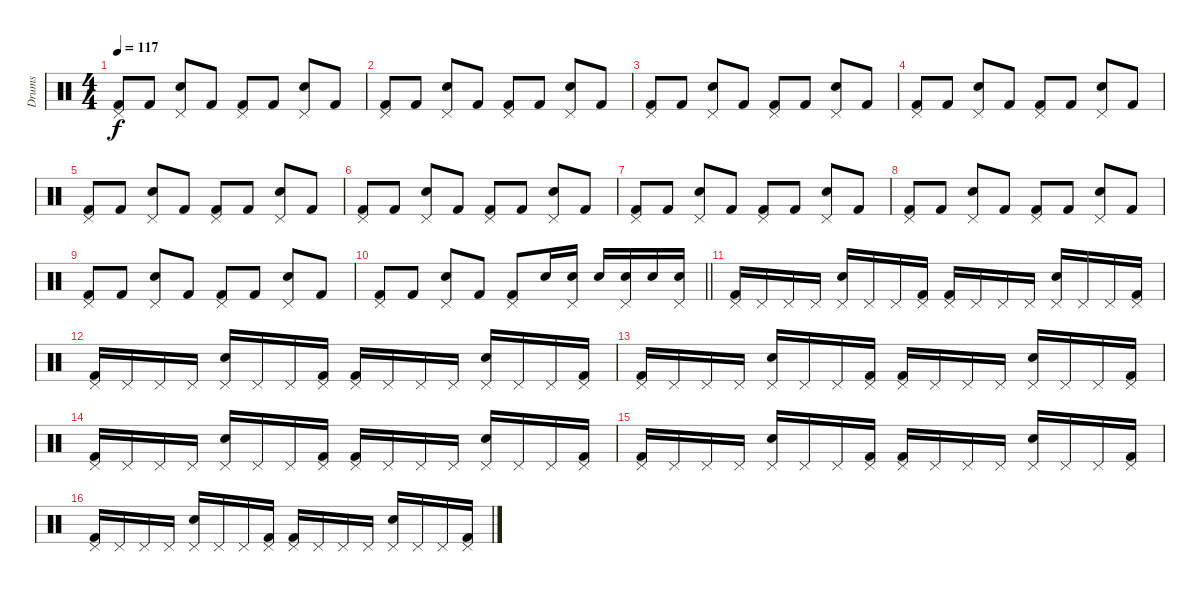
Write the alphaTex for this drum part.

\track ("Drums" "Drums") {instrument percussion}
\staff {score}
\articulation defaults
\ts (4 4)
\tempo 117
\clef neutral
\ks c
("Kick (hit) 2" "Pedal Hi-Hat (hit)").8{dy f} "Kick (hit) 2".8 ("Snare (hit) 2" "Pedal Hi-Hat (hit)").8 "Kick (hit) 2".8 ("Kick (hit) 2" "Pedal Hi-Hat (hit)").8 "Kick (hit) 2".8 ("Snare (hit) 2" "Pedal Hi-Hat (hit)").8 "Kick (hit) 2".8 |
("Kick (hit) 2" "Pedal Hi-Hat (hit)").8 "Kick (hit) 2".8 ("Snare (hit) 2" "Pedal Hi-Hat (hit)").8 "Kick (hit) 2".8 ("Kick (hit) 2" "Pedal Hi-Hat (hit)").8 "Kick (hit) 2".8 ("Snare (hit) 2" "Pedal Hi-Hat (hit)").8 "Kick (hit) 2".8 |
("Kick (hit) 2" "Pedal Hi-Hat (hit)").8 "Kick (hit) 2".8 ("Snare (hit) 2" "Pedal Hi-Hat (hit)").8 "Kick (hit) 2".8 ("Kick (hit) 2" "Pedal Hi-Hat (hit)").8 "Kick (hit) 2".8 ("Snare (hit) 2" "Pedal Hi-Hat (hit)").8 "Kick (hit) 2".8 |
("Kick (hit) 2" "Pedal Hi-Hat (hit)").8 "Kick (hit) 2".8 ("Snare (hit) 2" "Pedal Hi-Hat (hit)").8 "Kick (hit) 2".8 ("Kick (hit) 2" "Pedal Hi-Hat (hit)").8 "Kick (hit) 2".8 ("Snare (hit) 2" "Pedal Hi-Hat (hit)").8 "Kick (hit) 2".8 |
("Kick (hit) 2" "Pedal Hi-Hat (hit)").8 "Kick (hit) 2".8 ("Snare (hit) 2" "Pedal Hi-Hat (hit)").8 "Kick (hit) 2".8 ("Kick (hit) 2" "Pedal Hi-Hat (hit)").8 "Kick (hit) 2".8 ("Snare (hit) 2" "Pedal Hi-Hat (hit)").8 "Kick (hit) 2".8 |
("Kick (hit) 2" "Pedal Hi-Hat (hit)").8 "Kick (hit) 2".8 ("Snare (hit) 2" "Pedal Hi-Hat (hit)").8 "Kick (hit) 2".8 ("Kick (hit) 2" "Pedal Hi-Hat (hit)").8 "Kick (hit) 2".8 ("Snare (hit) 2" "Pedal Hi-Hat (hit)").8 "Kick (hit) 2".8 |
("Kick (hit) 2" "Pedal Hi-Hat (hit)").8 "Kick (hit) 2".8 ("Snare (hit) 2" "Pedal Hi-Hat (hit)").8 "Kick (hit) 2".8 ("Kick (hit) 2" "Pedal Hi-Hat (hit)").8 "Kick (hit) 2".8 ("Snare (hit) 2" "Pedal Hi-Hat (hit)").8 "Kick (hit) 2".8 |
("Kick (hit) 2" "Pedal Hi-Hat (hit)").8 "Kick (hit) 2".8 ("Snare (hit) 2" "Pedal Hi-Hat (hit)").8 "Kick (hit) 2".8 ("Kick (hit) 2" "Pedal Hi-Hat (hit)").8 "Kick (hit) 2".8 ("Snare (hit) 2" "Pedal Hi-Hat (hit)").8 "Kick (hit) 2".8 |
("Kick (hit) 2" "Pedal Hi-Hat (hit)").8 "Kick (hit) 2".8 ("Snare (hit) 2" "Pedal Hi-Hat (hit)").8 "Kick (hit) 2".8 ("Kick (hit) 2" "Pedal Hi-Hat (hit)").8 "Kick (hit) 2".8 ("Snare (hit) 2" "Pedal Hi-Hat (hit)").8 "Kick (hit) 2".8 |
\barLineRight lightlight
("Kick (hit) 2" "Pedal Hi-Hat (hit)").8 "Kick (hit) 2".8 ("Snare (hit) 2" "Pedal Hi-Hat (hit)").8 "Kick (hit) 2".8 ("Kick (hit) 2" "Pedal Hi-Hat (hit)").8 "Snare (hit) 2".16 ("Snare (hit) 2" "Pedal Hi-Hat (hit)").16 "Snare (hit) 2".16 ("Snare (hit) 2" "Pedal Hi-Hat (hit)").16 "Snare (hit) 2".16 ("Snare (hit) 2" "Pedal Hi-Hat (hit)").16 |
("Kick (hit) 2" "Pedal Hi-Hat (hit)").16 "Pedal Hi-Hat (hit)".16 "Pedal Hi-Hat (hit)".16 "Pedal Hi-Hat (hit)".16 ("Snare (hit) 2" "Pedal Hi-Hat (hit)").16 "Pedal Hi-Hat (hit)".16 "Pedal Hi-Hat (hit)".16 ("Kick (hit) 2" "Pedal Hi-Hat (hit)").16 ("Kick (hit) 2" "Pedal Hi-Hat (hit)").16 "Pedal Hi-Hat (hit)".16 "Pedal Hi-Hat (hit)".16 "Pedal Hi-Hat (hit)".16 ("Snare (hit) 2" "Pedal Hi-Hat (hit)").16 "Pedal Hi-Hat (hit)".16 "Pedal Hi-Hat (hit)".16 ("Kick (hit) 2" "Pedal Hi-Hat (hit)").16 |
("Kick (hit) 2" "Pedal Hi-Hat (hit)").16 "Pedal Hi-Hat (hit)".16 "Pedal Hi-Hat (hit)".16 "Pedal Hi-Hat (hit)".16 ("Snare (hit) 2" "Pedal Hi-Hat (hit)").16 "Pedal Hi-Hat (hit)".16 "Pedal Hi-Hat (hit)".16 ("Kick (hit) 2" "Pedal Hi-Hat (hit)").16 ("Kick (hit) 2" "Pedal Hi-Hat (hit)").16 "Pedal Hi-Hat (hit)".16 "Pedal Hi-Hat (hit)".16 "Pedal Hi-Hat (hit)".16 ("Snare (hit) 2" "Pedal Hi-Hat (hit)").16 "Pedal Hi-Hat (hit)".16 "Pedal Hi-Hat (hit)".16 ("Kick (hit) 2" "Pedal Hi-Hat (hit)").16 |
("Kick (hit) 2" "Pedal Hi-Hat (hit)").16 "Pedal Hi-Hat (hit)".16 "Pedal Hi-Hat (hit)".16 "Pedal Hi-Hat (hit)".16 ("Snare (hit) 2" "Pedal Hi-Hat (hit)").16 "Pedal Hi-Hat (hit)".16 "Pedal Hi-Hat (hit)".16 ("Kick (hit) 2" "Pedal Hi-Hat (hit)").16 ("Kick (hit) 2" "Pedal Hi-Hat (hit)").16 "Pedal Hi-Hat (hit)".16 "Pedal Hi-Hat (hit)".16 "Pedal Hi-Hat (hit)".16 ("Snare (hit) 2" "Pedal Hi-Hat (hit)").16 "Pedal Hi-Hat (hit)".16 "Pedal Hi-Hat (hit)".16 ("Kick (hit) 2" "Pedal Hi-Hat (hit)").16 |
("Kick (hit) 2" "Pedal Hi-Hat (hit)").16 "Pedal Hi-Hat (hit)".16 "Pedal Hi-Hat (hit)".16 "Pedal Hi-Hat (hit)".16 ("Snare (hit) 2" "Pedal Hi-Hat (hit)").16 "Pedal Hi-Hat (hit)".16 "Pedal Hi-Hat (hit)".16 ("Kick (hit) 2" "Pedal Hi-Hat (hit)").16 ("Kick (hit) 2" "Pedal Hi-Hat (hit)").16 "Pedal Hi-Hat (hit)".16 "Pedal Hi-Hat (hit)".16 "Pedal Hi-Hat (hit)".16 ("Snare (hit) 2" "Pedal Hi-Hat (hit)").16 "Pedal Hi-Hat (hit)".16 "Pedal Hi-Hat (hit)".16 ("Kick (hit) 2" "Pedal Hi-Hat (hit)").16 |
("Kick (hit) 2" "Pedal Hi-Hat (hit)").16 "Pedal Hi-Hat (hit)".16 "Pedal Hi-Hat (hit)".16 "Pedal Hi-Hat (hit)".16 ("Snare (hit) 2" "Pedal Hi-Hat (hit)").16 "Pedal Hi-Hat (hit)".16 "Pedal Hi-Hat (hit)".16 ("Kick (hit) 2" "Pedal Hi-Hat (hit)").16 ("Kick (hit) 2" "Pedal Hi-Hat (hit)").16 "Pedal Hi-Hat (hit)".16 "Pedal Hi-Hat (hit)".16 "Pedal Hi-Hat (hit)".16 ("Snare (hit) 2" "Pedal Hi-Hat (hit)").16 "Pedal Hi-Hat (hit)".16 "Pedal Hi-Hat (hit)".16 ("Kick (hit) 2" "Pedal Hi-Hat (hit)").16 |
("Kick (hit) 2" "Pedal Hi-Hat (hit)").16 "Pedal Hi-Hat (hit)".16 "Pedal Hi-Hat (hit)".16 "Pedal Hi-Hat (hit)".16 ("Snare (hit) 2" "Pedal Hi-Hat (hit)").16 "Pedal Hi-Hat (hit)".16 "Pedal Hi-Hat (hit)".16 ("Kick (hit) 2" "Pedal Hi-Hat (hit)").16 ("Kick (hit) 2" "Pedal Hi-Hat (hit)").16 "Pedal Hi-Hat (hit)".16 "Pedal Hi-Hat (hit)".16 "Pedal Hi-Hat (hit)".16 ("Snare (hit) 2" "Pedal Hi-Hat (hit)").16 "Pedal Hi-Hat (hit)".16 "Pedal Hi-Hat (hit)".16 ("Kick (hit) 2" "Pedal Hi-Hat (hit)").16
